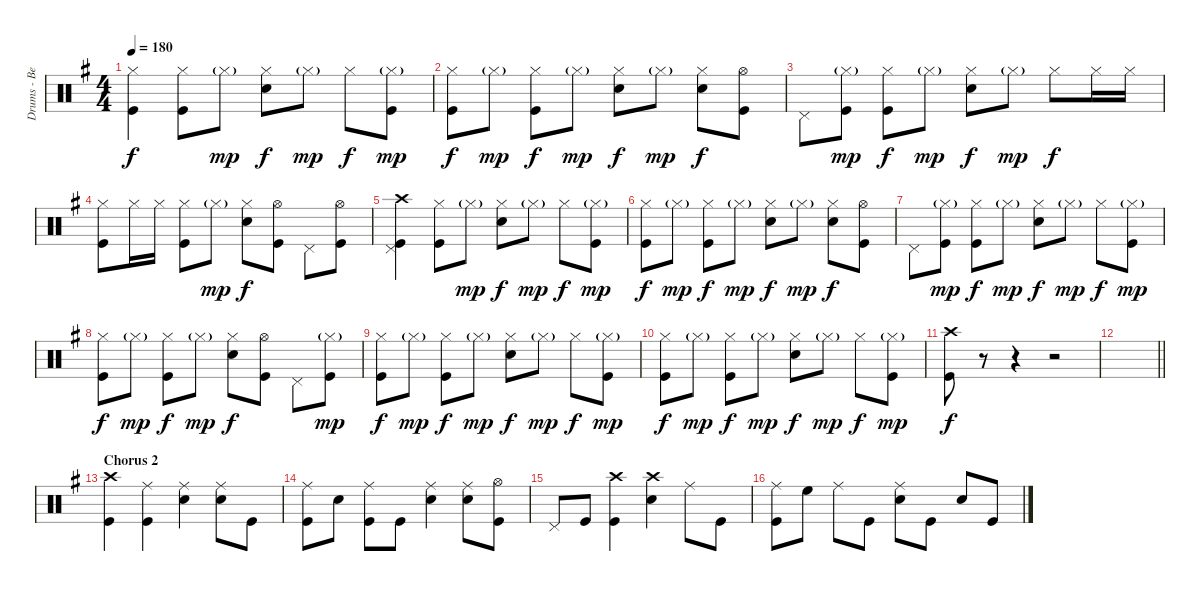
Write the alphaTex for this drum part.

\track ("Drums - Ben Johnston" "Drums - Be") {instrument percussion}
\staff {score}
\articulation defaults
\ts (4 4)
\tempo 180
\clef neutral
\ks eminor
("Hi-Hat (closed)" "Kick (hit)").4{dy f} ("Hi-Hat (closed)" "Kick (hit)").8 "Hi-Hat (closed)"{g}.8{dy mp} ("Hi-Hat (closed)" "Snare (hit) 2").8{dy f} "Hi-Hat (closed)"{g}.8{dy mp} "Hi-Hat (closed)".8{dy f} ("Hi-Hat (closed)"{g} "Kick (hit)").8{dy mp} |
("Hi-Hat (closed)" "Kick (hit)").8{dy f} "Hi-Hat (closed)"{g}.8{dy mp} ("Hi-Hat (closed)" "Kick (hit)").8{dy f} "Hi-Hat (closed)"{g}.8{dy mp} ("Hi-Hat (closed)" "Snare (hit) 2").8{dy f} "Hi-Hat (closed)"{g}.8{dy mp} ("Hi-Hat (closed)" "Snare (hit) 2").8{dy f} ("Hi-Hat (open)" "Kick (hit)").8 |
"Pedal Hi-Hat (hit)".8 ("Hi-Hat (closed)"{g} "Kick (hit)").8{dy mp} ("Hi-Hat (closed)" "Kick (hit)").8{dy f} "Hi-Hat (closed)"{g}.8{dy mp} ("Hi-Hat (closed)" "Snare (hit) 2").8{dy f} "Hi-Hat (closed)"{g}.8{dy mp} "Hi-Hat (closed)".8{dy f} "Hi-Hat (closed)".16 "Hi-Hat (closed)".16 |
("Hi-Hat (closed)" "Kick (hit)").8 "Hi-Hat (closed)".16 "Hi-Hat (closed)".16 ("Hi-Hat (closed)" "Kick (hit)").8 "Hi-Hat (closed)"{g}.8{dy mp} ("Hi-Hat (closed)" "Snare (hit) 2").8{dy f} ("Hi-Hat (open)" "Kick (hit)").8 "Pedal Hi-Hat (hit)".8 ("Hi-Hat (open)" "Kick (hit)").8 |
("Crash high (hit)" "Pedal Hi-Hat (hit)" "Kick (hit)").4 ("Hi-Hat (closed)" "Kick (hit)").8 "Hi-Hat (closed)"{g}.8{dy mp} ("Hi-Hat (closed)" "Snare (hit) 2").8{dy f} "Hi-Hat (closed)"{g}.8{dy mp} "Hi-Hat (closed)".8{dy f} ("Hi-Hat (closed)"{g} "Kick (hit)").8{dy mp} |
("Hi-Hat (closed)" "Kick (hit)").8{dy f} "Hi-Hat (closed)"{g}.8{dy mp} ("Hi-Hat (closed)" "Kick (hit)").8{dy f} "Hi-Hat (closed)"{g}.8{dy mp} ("Hi-Hat (closed)" "Snare (hit) 2").8{dy f} "Hi-Hat (closed)"{g}.8{dy mp} ("Hi-Hat (closed)" "Snare (hit) 2").8{dy f} ("Hi-Hat (open)" "Kick (hit)").8 |
"Pedal Hi-Hat (hit)".8 ("Hi-Hat (closed)"{g} "Kick (hit)").8{dy mp} ("Hi-Hat (closed)" "Kick (hit)").8{dy f} "Hi-Hat (closed)"{g}.8{dy mp} ("Hi-Hat (closed)" "Snare (hit) 2").8{dy f} "Hi-Hat (closed)"{g}.8{dy mp} "Hi-Hat (closed)".8{dy f} ("Hi-Hat (closed)"{g} "Kick (hit)").8{dy mp} |
("Hi-Hat (closed)" "Kick (hit)").8{dy f} "Hi-Hat (closed)"{g}.8{dy mp} ("Hi-Hat (closed)" "Kick (hit)").8{dy f} "Hi-Hat (closed)"{g}.8{dy mp} ("Hi-Hat (closed)" "Snare (hit) 2").8{dy f} ("Hi-Hat (open)" "Kick (hit)").8 "Pedal Hi-Hat (hit)".8 ("Hi-Hat (closed)"{g} "Kick (hit)").8{dy mp} |
("Hi-Hat (closed)" "Kick (hit)").8{dy f} "Hi-Hat (closed)"{g}.8{dy mp} ("Hi-Hat (closed)" "Kick (hit)").8{dy f} "Hi-Hat (closed)"{g}.8{dy mp} ("Hi-Hat (closed)" "Snare (hit) 2").8{dy f} "Hi-Hat (closed)"{g}.8{dy mp} "Hi-Hat (closed)".8{dy f} ("Hi-Hat (closed)"{g} "Kick (hit)").8{dy mp} |
("Hi-Hat (closed)" "Kick (hit)").8{dy f} "Hi-Hat (closed)"{g}.8{dy mp} ("Hi-Hat (closed)" "Kick (hit)").8{dy f} "Hi-Hat (closed)"{g}.8{dy mp} ("Hi-Hat (closed)" "Snare (hit) 2").8{dy f} "Hi-Hat (closed)"{g}.8{dy mp} "Hi-Hat (closed)".8{dy f} ("Hi-Hat (closed)"{g} "Kick (hit)").8{dy mp} |
("Crash high (hit)" "Kick (hit)").8{dy f} r.8 r.4 r.2 |
\barLineRight lightlight
|
\section ("" "Chorus 2")
("Crash high (hit)" "Kick (hit)").4 ("Ride (middle)" "Kick (hit)").4 ("Ride (middle)" "Snare (hit) 2").4 ("Ride (middle)" "Snare (hit) 2").8 "Kick (hit)".8 |
("Ride (middle)" "Kick (hit)").8 "Snare (hit) 2".8 ("Ride (middle)" "Kick (hit)").8 "Kick (hit)".8 ("Ride (middle)" "Snare (hit) 2").4 ("Ride (middle)" "Snare (hit) 2").8 ("Hi-Hat (open)" "Kick (hit)").8 |
"Pedal Hi-Hat (hit)".8 "Kick (hit)".8 ("Crash high (hit)" "Kick (hit)").4 ("Crash high (hit)" "Snare (hit) 2").4 "Ride (middle)".8 "Kick (hit)".8 |
("Ride (middle)" "Kick (hit)").8 "High Floor Tom (hit)".8 "Ride (middle)".8 "Kick (hit)".8 ("Ride (middle)" "Snare (hit) 2").8 "Kick (hit)".8 "Snare (hit) 2".8 "Kick (hit)".8
